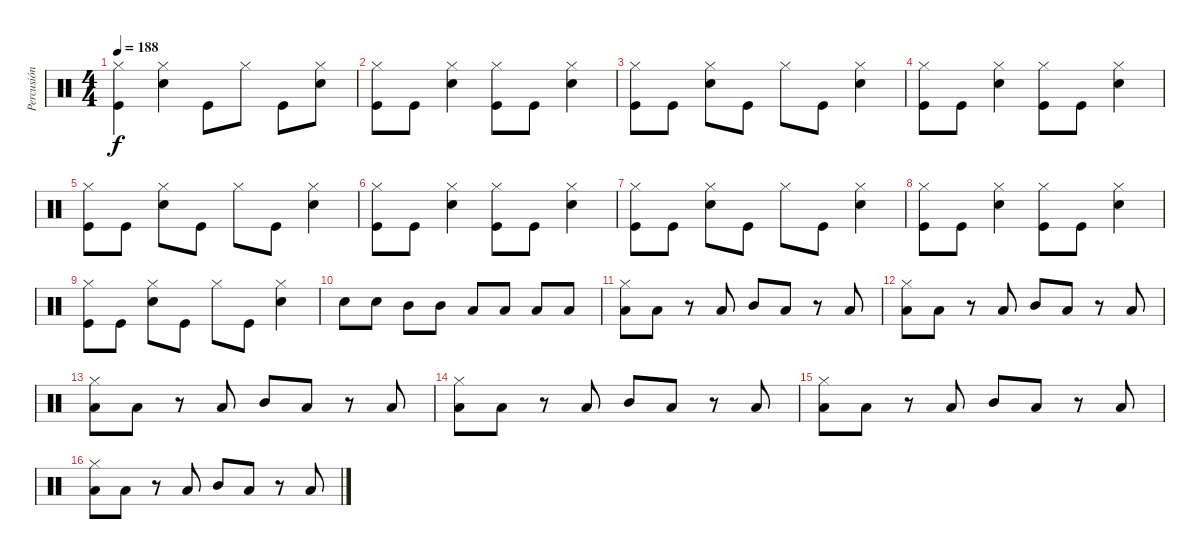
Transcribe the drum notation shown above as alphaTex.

\track ("Percusión" "Percusión") {instrument percussion}
\staff {score}
\articulation defaults
\ts (4 4)
\tempo 188
\clef neutral
\ks c
("Hi-Hat (closed)" "Kick (hit)").4{dy f} ("Hi-Hat (closed)" "Snare (hit) 2").4 "Kick (hit)".8 "Hi-Hat (closed)".8 "Kick (hit)".8 ("Hi-Hat (closed)" "Snare (hit) 2").8 |
("Hi-Hat (closed)" "Kick (hit)").8 "Kick (hit)".8 ("Hi-Hat (closed)" "Snare (hit) 2").4 ("Hi-Hat (closed)" "Kick (hit)").8 "Kick (hit)".8 ("Hi-Hat (closed)" "Snare (hit) 2").4 |
("Hi-Hat (closed)" "Kick (hit)").8 "Kick (hit)".8 ("Hi-Hat (closed)" "Snare (hit) 2").8 "Kick (hit)".8 "Hi-Hat (closed)".8 "Kick (hit)".8 ("Hi-Hat (closed)" "Snare (hit) 2").4 |
("Hi-Hat (closed)" "Kick (hit)").8 "Kick (hit)".8 ("Hi-Hat (closed)" "Snare (hit) 2").4 ("Hi-Hat (closed)" "Kick (hit)").8 "Kick (hit)".8 ("Hi-Hat (closed)" "Snare (hit) 2").4 |
("Hi-Hat (closed)" "Kick (hit)").8 "Kick (hit)".8 ("Hi-Hat (closed)" "Snare (hit) 2").8 "Kick (hit)".8 "Hi-Hat (closed)".8 "Kick (hit)".8 ("Hi-Hat (closed)" "Snare (hit) 2").4 |
("Hi-Hat (closed)" "Kick (hit)").8 "Kick (hit)".8 ("Hi-Hat (closed)" "Snare (hit) 2").4 ("Hi-Hat (closed)" "Kick (hit)").8 "Kick (hit)".8 ("Hi-Hat (closed)" "Snare (hit) 2").4 |
("Hi-Hat (closed)" "Kick (hit)").8 "Kick (hit)".8 ("Hi-Hat (closed)" "Snare (hit) 2").8 "Kick (hit)".8 "Hi-Hat (closed)".8 "Kick (hit)".8 ("Hi-Hat (closed)" "Snare (hit) 2").4 |
("Hi-Hat (closed)" "Kick (hit)").8 "Kick (hit)".8 ("Hi-Hat (closed)" "Snare (hit) 2").4 ("Hi-Hat (closed)" "Kick (hit)").8 "Kick (hit)".8 ("Hi-Hat (closed)" "Snare (hit) 2").4 |
("Hi-Hat (closed)" "Kick (hit)").8 "Kick (hit)".8 ("Hi-Hat (closed)" "Snare (hit) 2").8 "Kick (hit)".8 "Hi-Hat (closed)".8 "Kick (hit)".8 ("Hi-Hat (closed)" "Snare (hit) 2").4 |
"Snare (hit) 2".8 "Snare (hit) 2".8 "Mid Tom (hit)".8 "Mid Tom (hit)".8 "Low Tom (hit)".8 "Low Tom (hit)".8 "Low Tom (hit)".8 "Low Tom (hit)".8 |
("Hi-Hat (closed)" "Low Tom (hit)").8 "Low Tom (hit)".8 r.8 "Low Tom (hit)".8 "Mid Tom (hit)".8 "Low Tom (hit)".8 r.8 "Low Tom (hit)".8 |
("Hi-Hat (closed)" "Low Tom (hit)").8 "Low Tom (hit)".8 r.8 "Low Tom (hit)".8 "Mid Tom (hit)".8 "Low Tom (hit)".8 r.8 "Low Tom (hit)".8 |
("Hi-Hat (closed)" "Low Tom (hit)").8 "Low Tom (hit)".8 r.8 "Low Tom (hit)".8 "Mid Tom (hit)".8 "Low Tom (hit)".8 r.8 "Low Tom (hit)".8 |
("Hi-Hat (closed)" "Low Tom (hit)").8 "Low Tom (hit)".8 r.8 "Low Tom (hit)".8 "Mid Tom (hit)".8 "Low Tom (hit)".8 r.8 "Low Tom (hit)".8 |
("Hi-Hat (closed)" "Low Tom (hit)").8 "Low Tom (hit)".8 r.8 "Low Tom (hit)".8 "Mid Tom (hit)".8 "Low Tom (hit)".8 r.8 "Low Tom (hit)".8 |
("Hi-Hat (closed)" "Low Tom (hit)").8 "Low Tom (hit)".8 r.8 "Low Tom (hit)".8 "Mid Tom (hit)".8 "Low Tom (hit)".8 r.8 "Low Tom (hit)".8
